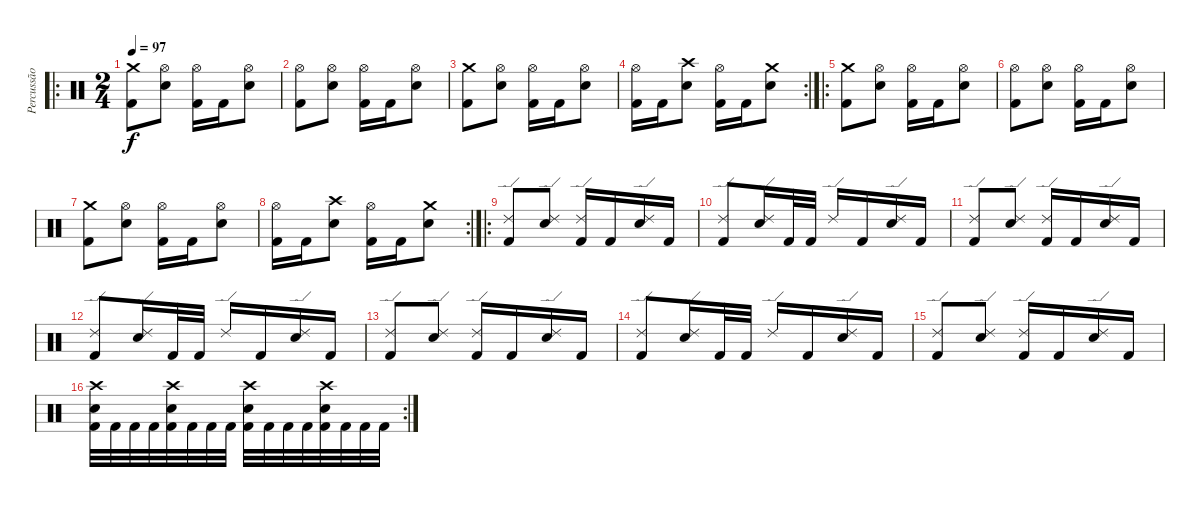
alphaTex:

\track ("Percussão" "Percussão") {instrument percussion}
\staff {score}
\articulation defaults
\ro
\ts (2 4)
\tempo 97
\clef neutral
\ks c
("Crash medium (hit)" "Kick (hit) 2").8{dy f} ("Hi-Hat (open)" "Snare (hit) 2").8 ("Hi-Hat (open)" "Kick (hit) 2").16 "Kick (hit) 2".16 ("Hi-Hat (open)" "Snare (hit) 2").8 |
("Hi-Hat (open)" "Kick (hit) 2").8 ("Hi-Hat (open)" "Snare (hit) 2").8 ("Hi-Hat (open)" "Kick (hit) 2").16 "Kick (hit) 2".16 ("Hi-Hat (open)" "Snare (hit) 2").8 |
("Crash medium (hit)" "Kick (hit) 2").8 ("Hi-Hat (open)" "Snare (hit) 2").8 ("Hi-Hat (open)" "Kick (hit) 2").16 "Kick (hit) 2".16 ("Hi-Hat (open)" "Snare (hit) 2").8 |
\rc 2
("Hi-Hat (open)" "Kick (hit) 2").16 "Kick (hit) 2".16 ("Crash high (hit)" "Snare (hit) 2").8 ("Hi-Hat (open)" "Kick (hit) 2").16 "Kick (hit) 2".16 ("Crash medium (hit)" "Snare (hit) 2").8 |
\ro
("Crash medium (hit)" "Kick (hit) 2").8 ("Hi-Hat (open)" "Snare (hit) 2").8 ("Hi-Hat (open)" "Kick (hit) 2").16 "Kick (hit) 2".16 ("Hi-Hat (open)" "Snare (hit) 2").8 |
("Hi-Hat (open)" "Kick (hit) 2").8 ("Hi-Hat (open)" "Snare (hit) 2").8 ("Hi-Hat (open)" "Kick (hit) 2").16 "Kick (hit) 2".16 ("Hi-Hat (open)" "Snare (hit) 2").8 |
("Crash medium (hit)" "Kick (hit) 2").8 ("Hi-Hat (open)" "Snare (hit) 2").8 ("Hi-Hat (open)" "Kick (hit) 2").16 "Kick (hit) 2".16 ("Hi-Hat (open)" "Snare (hit) 2").8 |
\rc 2
("Hi-Hat (open)" "Kick (hit) 2").16 "Kick (hit) 2".16 ("Crash high (hit)" "Snare (hit) 2").8 ("Hi-Hat (open)" "Kick (hit) 2").16 "Kick (hit) 2".16 ("Crash medium (hit)" "Snare (hit) 2").8 |
\ro
("Ride (edge) 2" "Kick (hit) 2").8 ("Ride (edge) 2" "Snare (hit) 2").8 ("Ride (edge) 2" "Kick (hit) 2").16 "Kick (hit) 2".16 ("Ride (edge) 2" "Snare (hit) 2").16 "Kick (hit) 2".16 |
("Ride (edge) 2" "Kick (hit) 2").8 ("Ride (edge) 2" "Snare (hit) 2").16 "Kick (hit) 2".32 "Kick (hit) 2".32 "Ride (edge) 2".16 "Kick (hit) 2".16 ("Ride (edge) 2" "Snare (hit) 2").16 "Kick (hit) 2".16 |
("Ride (edge) 2" "Kick (hit) 2").8 ("Ride (edge) 2" "Snare (hit) 2").8 ("Ride (edge) 2" "Kick (hit) 2").16 "Kick (hit) 2".16 ("Ride (edge) 2" "Snare (hit) 2").16 "Kick (hit) 2".16 |
("Ride (edge) 2" "Kick (hit) 2").8 ("Ride (edge) 2" "Snare (hit) 2").16 "Kick (hit) 2".32 "Kick (hit) 2".32 "Ride (edge) 2".16 "Kick (hit) 2".16 ("Ride (edge) 2" "Snare (hit) 2").16 "Kick (hit) 2".16 |
("Ride (edge) 2" "Kick (hit) 2").8 ("Ride (edge) 2" "Snare (hit) 2").8 ("Ride (edge) 2" "Kick (hit) 2").16 "Kick (hit) 2".16 ("Ride (edge) 2" "Snare (hit) 2").16 "Kick (hit) 2".16 |
("Ride (edge) 2" "Kick (hit) 2").8 ("Ride (edge) 2" "Snare (hit) 2").16 "Kick (hit) 2".32 "Kick (hit) 2".32 "Ride (edge) 2".16 "Kick (hit) 2".16 ("Ride (edge) 2" "Snare (hit) 2").16 "Kick (hit) 2".16 |
("Ride (edge) 2" "Kick (hit) 2").8 ("Ride (edge) 2" "Snare (hit) 2").8 ("Ride (edge) 2" "Kick (hit) 2").16 "Kick (hit) 2".16 ("Ride (edge) 2" "Snare (hit) 2").16 "Kick (hit) 2".16 |
\rc 2
("Crash high (hit)" "Snare (hit) 2" "Kick (hit) 2").32 "Kick (hit) 2".32 "Kick (hit) 2".32 "Kick (hit) 2".32 ("Crash high (hit)" "Snare (hit) 2" "Kick (hit) 2").32 "Kick (hit) 2".32 "Kick (hit) 2".32 "Kick (hit) 2".32 ("Crash high (hit)" "Snare (hit) 2" "Kick (hit) 2").32 "Kick (hit) 2".32 "Kick (hit) 2".32 "Kick (hit) 2".32 ("Crash high (hit)" "Snare (hit) 2" "Kick (hit) 2").32 "Kick (hit) 2".32 "Kick (hit) 2".32 "Kick (hit) 2".32
